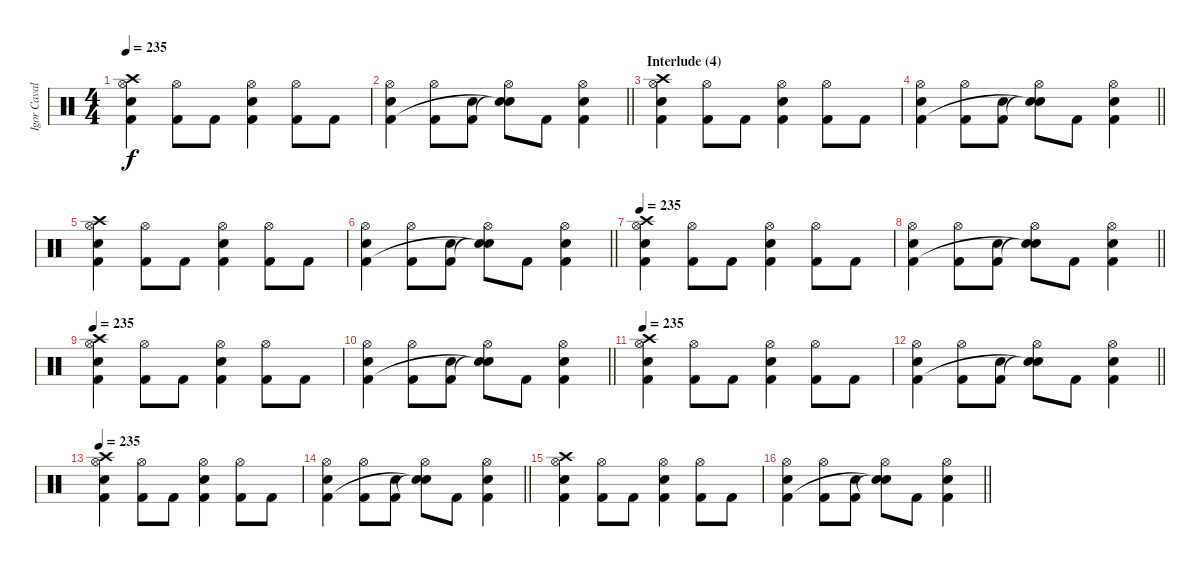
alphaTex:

\track ("Igor Cavalera" "Igor Caval") {instrument percussion}
\staff {score}
\articulation defaults
\ts (4 4)
\tempo 235
\clef neutral
\ks c
("Crash high (hit)" "Hi-Hat (open)" "Electric Snare (hit)" "Kick (hit) 2").4{dy f} ("Hi-Hat (open)" "Kick (hit) 2").8 "Kick (hit) 2".8 ("Hi-Hat (open)" "Electric Snare (hit)" "Kick (hit) 2").4 ("Hi-Hat (open)" "Kick (hit) 2").8 "Kick (hit) 2".8 |
\barLineRight lightlight
("Hi-Hat (open)" "Electric Snare (hit)" "Kick (hit) 2").4 ("Hi-Hat (open)" "Kick (hit) 2").8 ("Electric Snare (hit)" "Kick (hit) 2").8 ("Hi-Hat (open)" "Snare (hit)"{t} "Snare (hit)"{t}).8 "Kick (hit) 2".8 ("Hi-Hat (open)" "Electric Snare (hit)" "Kick (hit) 2").4 |
\section ("" "Interlude (4)")
("Crash high (hit)" "Hi-Hat (open)" "Electric Snare (hit)" "Kick (hit) 2").4 ("Hi-Hat (open)" "Kick (hit) 2").8 "Kick (hit) 2".8 ("Hi-Hat (open)" "Electric Snare (hit)" "Kick (hit) 2").4 ("Hi-Hat (open)" "Kick (hit) 2").8 "Kick (hit) 2".8 |
\barLineRight lightlight
("Hi-Hat (open)" "Electric Snare (hit)" "Kick (hit) 2").4 ("Hi-Hat (open)" "Kick (hit) 2").8 ("Electric Snare (hit)" "Kick (hit) 2").8 ("Hi-Hat (open)" "Snare (hit)"{t} "Snare (hit)"{t}).8 "Kick (hit) 2".8 ("Hi-Hat (open)" "Electric Snare (hit)" "Kick (hit) 2").4 |
("Crash high (hit)" "Hi-Hat (open)" "Electric Snare (hit)" "Kick (hit) 2").4 ("Hi-Hat (open)" "Kick (hit) 2").8 "Kick (hit) 2".8 ("Hi-Hat (open)" "Electric Snare (hit)" "Kick (hit) 2").4 ("Hi-Hat (open)" "Kick (hit) 2").8 "Kick (hit) 2".8 |
\barLineRight lightlight
("Hi-Hat (open)" "Electric Snare (hit)" "Kick (hit) 2").4 ("Hi-Hat (open)" "Kick (hit) 2").8 ("Electric Snare (hit)" "Kick (hit) 2").8 ("Hi-Hat (open)" "Snare (hit)"{t} "Snare (hit)"{t}).8 "Kick (hit) 2".8 ("Hi-Hat (open)" "Electric Snare (hit)" "Kick (hit) 2").4 |
\tempo 235
("Crash high (hit)" "Hi-Hat (open)" "Electric Snare (hit)" "Kick (hit) 2").4 ("Hi-Hat (open)" "Kick (hit) 2").8 "Kick (hit) 2".8 ("Hi-Hat (open)" "Electric Snare (hit)" "Kick (hit) 2").4 ("Hi-Hat (open)" "Kick (hit) 2").8 "Kick (hit) 2".8 |
\barLineRight lightlight
("Hi-Hat (open)" "Electric Snare (hit)" "Kick (hit) 2").4 ("Hi-Hat (open)" "Kick (hit) 2").8 ("Electric Snare (hit)" "Kick (hit) 2").8 ("Hi-Hat (open)" "Snare (hit)"{t} "Snare (hit)"{t}).8 "Kick (hit) 2".8 ("Hi-Hat (open)" "Electric Snare (hit)" "Kick (hit) 2").4 |
\tempo 235
("Crash high (hit)" "Hi-Hat (open)" "Electric Snare (hit)" "Kick (hit) 2").4 ("Hi-Hat (open)" "Kick (hit) 2").8 "Kick (hit) 2".8 ("Hi-Hat (open)" "Electric Snare (hit)" "Kick (hit) 2").4 ("Hi-Hat (open)" "Kick (hit) 2").8 "Kick (hit) 2".8 |
\barLineRight lightlight
("Hi-Hat (open)" "Electric Snare (hit)" "Kick (hit) 2").4 ("Hi-Hat (open)" "Kick (hit) 2").8 ("Electric Snare (hit)" "Kick (hit) 2").8 ("Hi-Hat (open)" "Snare (hit)"{t} "Snare (hit)"{t}).8 "Kick (hit) 2".8 ("Hi-Hat (open)" "Electric Snare (hit)" "Kick (hit) 2").4 |
\tempo 235
("Crash high (hit)" "Hi-Hat (open)" "Electric Snare (hit)" "Kick (hit) 2").4 ("Hi-Hat (open)" "Kick (hit) 2").8 "Kick (hit) 2".8 ("Hi-Hat (open)" "Electric Snare (hit)" "Kick (hit) 2").4 ("Hi-Hat (open)" "Kick (hit) 2").8 "Kick (hit) 2".8 |
\barLineRight lightlight
("Hi-Hat (open)" "Electric Snare (hit)" "Kick (hit) 2").4 ("Hi-Hat (open)" "Kick (hit) 2").8 ("Electric Snare (hit)" "Kick (hit) 2").8 ("Hi-Hat (open)" "Snare (hit)"{t} "Snare (hit)"{t}).8 "Kick (hit) 2".8 ("Hi-Hat (open)" "Electric Snare (hit)" "Kick (hit) 2").4 |
\tempo 235
("Crash high (hit)" "Hi-Hat (open)" "Electric Snare (hit)" "Kick (hit) 2").4 ("Hi-Hat (open)" "Kick (hit) 2").8 "Kick (hit) 2".8 ("Hi-Hat (open)" "Electric Snare (hit)" "Kick (hit) 2").4 ("Hi-Hat (open)" "Kick (hit) 2").8 "Kick (hit) 2".8 |
\barLineRight lightlight
("Hi-Hat (open)" "Electric Snare (hit)" "Kick (hit) 2").4 ("Hi-Hat (open)" "Kick (hit) 2").8 ("Electric Snare (hit)" "Kick (hit) 2").8 ("Hi-Hat (open)" "Snare (hit)"{t} "Snare (hit)"{t}).8 "Kick (hit) 2".8 ("Hi-Hat (open)" "Electric Snare (hit)" "Kick (hit) 2").4 |
("Crash high (hit)" "Hi-Hat (open)" "Electric Snare (hit)" "Kick (hit) 2").4 ("Hi-Hat (open)" "Kick (hit) 2").8 "Kick (hit) 2".8 ("Hi-Hat (open)" "Electric Snare (hit)" "Kick (hit) 2").4 ("Hi-Hat (open)" "Kick (hit) 2").8 "Kick (hit) 2".8 |
\barLineRight lightlight
("Hi-Hat (open)" "Electric Snare (hit)" "Kick (hit) 2").4 ("Hi-Hat (open)" "Kick (hit) 2").8 ("Electric Snare (hit)" "Kick (hit) 2").8 ("Hi-Hat (open)" "Snare (hit)"{t} "Snare (hit)"{t}).8 "Kick (hit) 2".8 ("Hi-Hat (open)" "Electric Snare (hit)" "Kick (hit) 2").4
